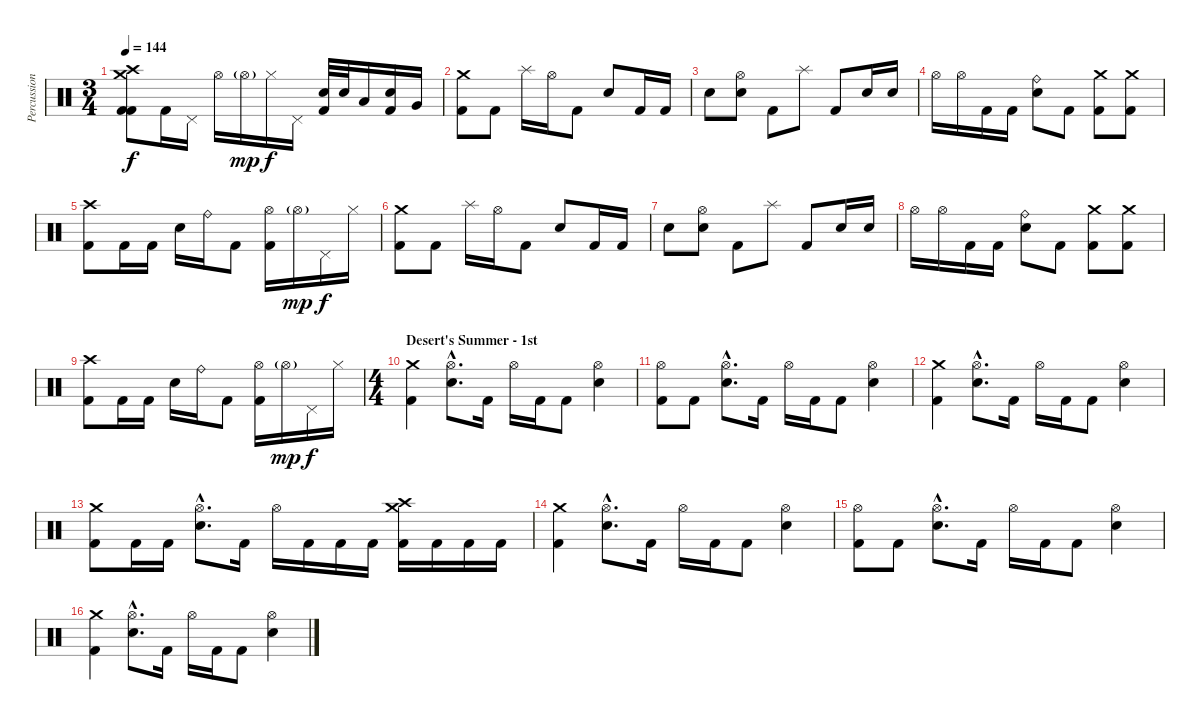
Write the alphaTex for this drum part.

\track ("Percussion" "Percussion") {instrument percussion}
\staff {score}
\articulation defaults
\ts (3 4)
\tempo 144
\clef neutral
\ks c
("Crash high (hit)" "Crash medium (hit)" "Kick (hit) 2" "Kick (hit) 2").8{dy f} "Kick (hit) 2".16 "Pedal Hi-Hat (hit)".16 "Hi-Hat (open)".16 "Hi-Hat (open)"{g}.16{dy mp} "Hi-Hat (closed)".16{dy f} "Pedal Hi-Hat (hit)".16 ("Electric Snare (hit)" "Kick (hit) 2").32 "Electric Snare (hit)".32 "Low Tom (hit)".16 ("Electric Snare (hit)" "Kick (hit) 2").16 "Very Low Tom (hit)".16 |
("Crash medium (hit)" "Kick (hit) 2").8 "Kick (hit) 2".8 "Splash (hit)".16 "Hi-Hat (open)".16 "Kick (hit) 2".8 "Electric Snare (hit)".8 "Kick (hit) 2".16 "Kick (hit) 2".16 |
"Electric Snare (hit)".8 ("Hi-Hat (open)" "Electric Snare (hit)").8 "Kick (hit) 2".8 "Splash (hit)".8 "Kick (hit) 2".8 "Electric Snare (hit)".16 "Electric Snare (hit)".16 |
"Hi-Hat (open)".16 "Hi-Hat (open)".16 "Kick (hit) 2".16 "Kick (hit) 2".16 ("Ride (bell)" "Electric Snare (hit)").8 "Kick (hit) 2".8 ("Crash medium (hit)" "Kick (hit) 2").8 ("Crash medium (hit)" "Kick (hit) 2").8 |
("Crash high (hit)" "Kick (hit) 2").8 "Kick (hit) 2".16 "Kick (hit) 2".16 "Electric Snare (hit)".16 "Ride (bell)".16 "Kick (hit) 2".8 ("Hi-Hat (open)" "Kick (hit) 2").16 "Hi-Hat (open)"{g}.16{dy mp} "Pedal Hi-Hat (hit)".16{dy f} "Hi-Hat (closed)".16 |
("Crash medium (hit)" "Kick (hit) 2").8 "Kick (hit) 2".8 "Splash (hit)".16 "Hi-Hat (open)".16 "Kick (hit) 2".8 "Electric Snare (hit)".8 "Kick (hit) 2".16 "Kick (hit) 2".16 |
"Electric Snare (hit)".8 ("Hi-Hat (open)" "Electric Snare (hit)").8 "Kick (hit) 2".8 "Splash (hit)".8 "Kick (hit) 2".8 "Electric Snare (hit)".16 "Electric Snare (hit)".16 |
"Hi-Hat (open)".16 "Hi-Hat (open)".16 "Kick (hit) 2".16 "Kick (hit) 2".16 ("Ride (bell)" "Electric Snare (hit)").8 "Kick (hit) 2".8 ("Crash medium (hit)" "Kick (hit) 2").8 ("Crash medium (hit)" "Kick (hit) 2").8 |
("Crash high (hit)" "Kick (hit) 2").8 "Kick (hit) 2".16 "Kick (hit) 2".16 "Electric Snare (hit)".16 "Ride (bell)".16 "Kick (hit) 2".8 ("Hi-Hat (open)" "Kick (hit) 2").16 "Hi-Hat (open)"{g}.16{dy mp} "Pedal Hi-Hat (hit)".16{dy f} "Hi-Hat (closed)".16 |
\ts (4 4)
\section ("" "Desert's Summer - 1st")
("Crash medium (hit)" "Kick (hit) 2").4 ("Hi-Hat (open)"{hac} "Electric Snare (hit)"{hac}).8{d} "Kick (hit) 2".16 "Hi-Hat (open)".16 "Kick (hit) 2".16 "Kick (hit) 2".8 ("Hi-Hat (open)" "Electric Snare (hit)").4 |
("Hi-Hat (open)" "Kick (hit) 2").8 "Kick (hit) 2".8 ("Hi-Hat (open)"{hac} "Electric Snare (hit)"{hac}).8{d} "Kick (hit) 2".16 "Hi-Hat (open)".16 "Kick (hit) 2".16 "Kick (hit) 2".8 ("Hi-Hat (open)" "Electric Snare (hit)").4 |
("Crash medium (hit)" "Kick (hit) 2").4 ("Hi-Hat (open)"{hac} "Electric Snare (hit)"{hac}).8{d} "Kick (hit) 2".16 "Hi-Hat (open)".16 "Kick (hit) 2".16 "Kick (hit) 2".8 ("Hi-Hat (open)" "Electric Snare (hit)").4 |
("Crash medium (hit)" "Kick (hit) 2").8 "Kick (hit) 2".16 "Kick (hit) 2".16 ("Hi-Hat (open)"{hac} "Electric Snare (hit)"{hac}).8{d} "Kick (hit) 2".16 "Hi-Hat (open)".16 "Kick (hit) 2".16 "Kick (hit) 2".16 "Kick (hit) 2".16 ("Crash high (hit)" "Crash medium (hit)" "Kick (hit) 2").16 "Kick (hit) 2".16 "Kick (hit) 2".16 "Kick (hit) 2".16 |
("Crash medium (hit)" "Kick (hit) 2").4 ("Hi-Hat (open)"{hac} "Electric Snare (hit)"{hac}).8{d} "Kick (hit) 2".16 "Hi-Hat (open)".16 "Kick (hit) 2".16 "Kick (hit) 2".8 ("Hi-Hat (open)" "Electric Snare (hit)").4 |
("Hi-Hat (open)" "Kick (hit) 2").8 "Kick (hit) 2".8 ("Hi-Hat (open)"{hac} "Electric Snare (hit)"{hac}).8{d} "Kick (hit) 2".16 "Hi-Hat (open)".16 "Kick (hit) 2".16 "Kick (hit) 2".8 ("Hi-Hat (open)" "Electric Snare (hit)").4 |
("Crash medium (hit)" "Kick (hit) 2").4 ("Hi-Hat (open)"{hac} "Electric Snare (hit)"{hac}).8{d} "Kick (hit) 2".16 "Hi-Hat (open)".16 "Kick (hit) 2".16 "Kick (hit) 2".8 ("Hi-Hat (open)" "Electric Snare (hit)").4
